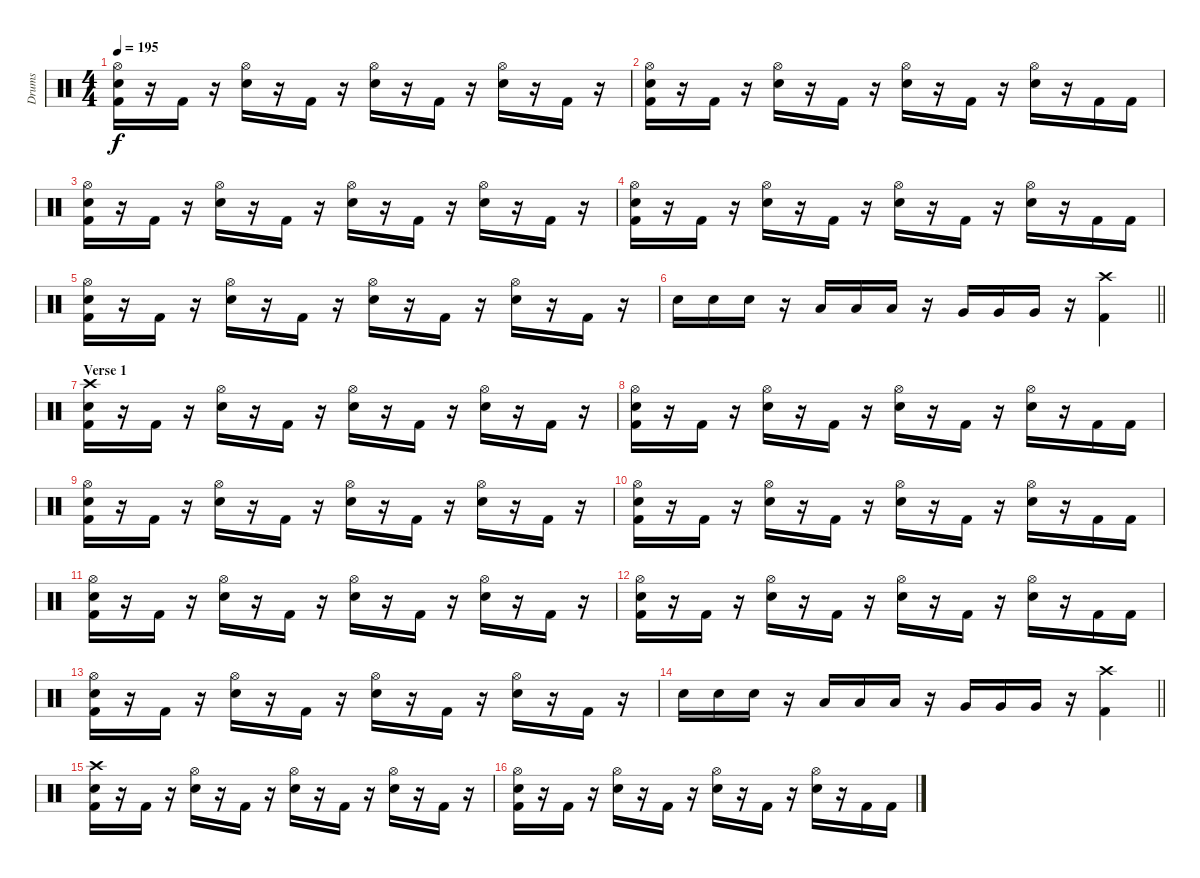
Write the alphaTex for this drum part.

\track ("Drums" "Drums") {instrument percussion}
\staff {score}
\articulation defaults
\ts (4 4)
\tempo 195
\clef neutral
\ks c
("Hi-Hat (open)" "Electric Snare (hit)" "Kick (hit) 2").16{dy f} r.16 "Kick (hit) 2".16 r.16 ("Hi-Hat (open)" "Electric Snare (hit)").16 r.16 "Kick (hit) 2".16 r.16 ("Hi-Hat (open)" "Electric Snare (hit)").16 r.16 "Kick (hit) 2".16 r.16 ("Hi-Hat (open)" "Electric Snare (hit)").16 r.16 "Kick (hit) 2".16 r.16 |
("Hi-Hat (open)" "Electric Snare (hit)" "Kick (hit) 2").16 r.16 "Kick (hit) 2".16 r.16 ("Hi-Hat (open)" "Electric Snare (hit)").16 r.16 "Kick (hit) 2".16 r.16 ("Hi-Hat (open)" "Electric Snare (hit)").16 r.16 "Kick (hit) 2".16 r.16 ("Hi-Hat (open)" "Electric Snare (hit)").16 r.16 "Kick (hit) 2".16 "Kick (hit) 2".16 |
("Hi-Hat (open)" "Electric Snare (hit)" "Kick (hit) 2").16 r.16 "Kick (hit) 2".16 r.16 ("Hi-Hat (open)" "Electric Snare (hit)").16 r.16 "Kick (hit) 2".16 r.16 ("Hi-Hat (open)" "Electric Snare (hit)").16 r.16 "Kick (hit) 2".16 r.16 ("Hi-Hat (open)" "Electric Snare (hit)").16 r.16 "Kick (hit) 2".16 r.16 |
("Hi-Hat (open)" "Electric Snare (hit)" "Kick (hit) 2").16 r.16 "Kick (hit) 2".16 r.16 ("Hi-Hat (open)" "Electric Snare (hit)").16 r.16 "Kick (hit) 2".16 r.16 ("Hi-Hat (open)" "Electric Snare (hit)").16 r.16 "Kick (hit) 2".16 r.16 ("Hi-Hat (open)" "Electric Snare (hit)").16 r.16 "Kick (hit) 2".16 "Kick (hit) 2".16 |
("Hi-Hat (open)" "Electric Snare (hit)" "Kick (hit) 2").16 r.16 "Kick (hit) 2".16 r.16 ("Hi-Hat (open)" "Electric Snare (hit)").16 r.16 "Kick (hit) 2".16 r.16 ("Hi-Hat (open)" "Electric Snare (hit)").16 r.16 "Kick (hit) 2".16 r.16 ("Hi-Hat (open)" "Electric Snare (hit)").16 r.16 "Kick (hit) 2".16 r.16 |
\barLineRight lightlight "Electric Snare (hit)".16 "Electric Snare (hit)".16 "Electric Snare (hit)".16
r.16 "Low Tom (hit)".16 "Low Tom (hit)".16 "Low Tom (hit)".16 r.16 "Very Low Tom (hit)".16 "Very Low Tom (hit)".16 "Very Low Tom (hit)".16 r.16 ("Crash high (hit)" "Kick (hit) 2").4 |
\section ("" "Verse 1")
("Crash high (hit)" "Electric Snare (hit)" "Kick (hit) 2").16 r.16 "Kick (hit) 2".16 r.16 ("Hi-Hat (open)" "Electric Snare (hit)").16 r.16 "Kick (hit) 2".16 r.16 ("Hi-Hat (open)" "Electric Snare (hit)").16 r.16 "Kick (hit) 2".16 r.16 ("Hi-Hat (open)" "Electric Snare (hit)").16 r.16 "Kick (hit) 2".16 r.16 |
("Hi-Hat (open)" "Electric Snare (hit)" "Kick (hit) 2").16 r.16 "Kick (hit) 2".16 r.16 ("Hi-Hat (open)" "Electric Snare (hit)").16 r.16 "Kick (hit) 2".16 r.16 ("Hi-Hat (open)" "Electric Snare (hit)").16 r.16 "Kick (hit) 2".16 r.16 ("Hi-Hat (open)" "Electric Snare (hit)").16 r.16 "Kick (hit) 2".16 "Kick (hit) 2".16 |
("Hi-Hat (open)" "Electric Snare (hit)" "Kick (hit) 2").16 r.16 "Kick (hit) 2".16 r.16 ("Hi-Hat (open)" "Electric Snare (hit)").16 r.16 "Kick (hit) 2".16 r.16 ("Hi-Hat (open)" "Electric Snare (hit)").16 r.16 "Kick (hit) 2".16 r.16 ("Hi-Hat (open)" "Electric Snare (hit)").16 r.16 "Kick (hit) 2".16 r.16 |
("Hi-Hat (open)" "Electric Snare (hit)" "Kick (hit) 2").16 r.16 "Kick (hit) 2".16 r.16 ("Hi-Hat (open)" "Electric Snare (hit)").16 r.16 "Kick (hit) 2".16 r.16 ("Hi-Hat (open)" "Electric Snare (hit)").16 r.16 "Kick (hit) 2".16 r.16 ("Hi-Hat (open)" "Electric Snare (hit)").16 r.16 "Kick (hit) 2".16 "Kick (hit) 2".16 |
("Hi-Hat (open)" "Electric Snare (hit)" "Kick (hit) 2").16 r.16 "Kick (hit) 2".16 r.16 ("Hi-Hat (open)" "Electric Snare (hit)").16 r.16 "Kick (hit) 2".16 r.16 ("Hi-Hat (open)" "Electric Snare (hit)").16 r.16 "Kick (hit) 2".16 r.16 ("Hi-Hat (open)" "Electric Snare (hit)").16 r.16 "Kick (hit) 2".16 r.16 |
("Hi-Hat (open)" "Electric Snare (hit)" "Kick (hit) 2").16 r.16 "Kick (hit) 2".16 r.16 ("Hi-Hat (open)" "Electric Snare (hit)").16 r.16 "Kick (hit) 2".16 r.16 ("Hi-Hat (open)" "Electric Snare (hit)").16 r.16 "Kick (hit) 2".16 r.16 ("Hi-Hat (open)" "Electric Snare (hit)").16 r.16 "Kick (hit) 2".16 "Kick (hit) 2".16 |
("Hi-Hat (open)" "Electric Snare (hit)" "Kick (hit) 2").16 r.16 "Kick (hit) 2".16 r.16 ("Hi-Hat (open)" "Electric Snare (hit)").16 r.16 "Kick (hit) 2".16 r.16 ("Hi-Hat (open)" "Electric Snare (hit)").16 r.16 "Kick (hit) 2".16 r.16 ("Hi-Hat (open)" "Electric Snare (hit)").16 r.16 "Kick (hit) 2".16 r.16 |
\barLineRight lightlight "Electric Snare (hit)".16 "Electric Snare (hit)".16 "Electric Snare (hit)".16
r.16 "Low Tom (hit)".16 "Low Tom (hit)".16 "Low Tom (hit)".16 r.16 "Very Low Tom (hit)".16 "Very Low Tom (hit)".16 "Very Low Tom (hit)".16 r.16 ("Crash high (hit)" "Kick (hit) 2").4 |
("Crash high (hit)" "Electric Snare (hit)" "Kick (hit) 2").16 r.16 "Kick (hit) 2".16 r.16 ("Hi-Hat (open)" "Electric Snare (hit)").16 r.16 "Kick (hit) 2".16 r.16 ("Hi-Hat (open)" "Electric Snare (hit)").16 r.16 "Kick (hit) 2".16 r.16 ("Hi-Hat (open)" "Electric Snare (hit)").16 r.16 "Kick (hit) 2".16 r.16 |
("Hi-Hat (open)" "Electric Snare (hit)" "Kick (hit) 2").16 r.16 "Kick (hit) 2".16 r.16 ("Hi-Hat (open)" "Electric Snare (hit)").16 r.16 "Kick (hit) 2".16 r.16 ("Hi-Hat (open)" "Electric Snare (hit)").16 r.16 "Kick (hit) 2".16 r.16 ("Hi-Hat (open)" "Electric Snare (hit)").16 r.16 "Kick (hit) 2".16 "Kick (hit) 2".16
